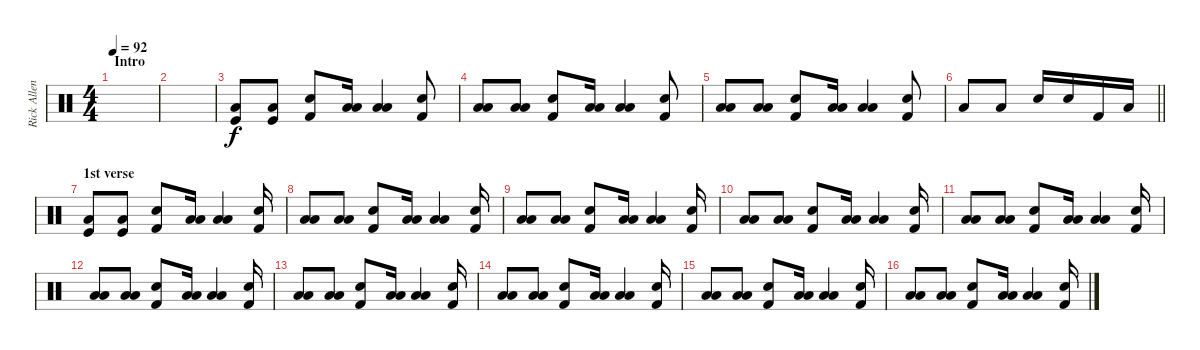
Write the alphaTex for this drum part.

\track ("Rick Allen" "Rick Allen") {instrument percussion}
\staff {score}
\articulation defaults
\ts (4 4)
\section ("" "Intro")
\tempo 92
\clef neutral
\ks c
|
|
("Low Floor Tom (hit)" "Kick (hit)").8 ("Low Floor Tom (hit)" "Kick (hit)").8 ("Snare (hit) 2" "Kick (hit) 2").8 ("Low Floor Tom (hit)" "Low Floor Tom (hit)").16 ("Low Floor Tom (hit)" "Low Floor Tom (hit)").4 ("Kick (hit) 2" "Snare (hit) 2").8 |
("Low Floor Tom (hit)" "Low Floor Tom (hit)").8 ("Low Floor Tom (hit)" "Low Floor Tom (hit)").8 ("Snare (hit) 2" "Kick (hit) 2").8 ("Low Floor Tom (hit)" "Low Floor Tom (hit)").16 ("Low Floor Tom (hit)" "Low Floor Tom (hit)").4 ("Kick (hit) 2" "Snare (hit) 2").8 |
("Low Floor Tom (hit)" "Low Floor Tom (hit)").8 ("Low Floor Tom (hit)" "Low Floor Tom (hit)").8 ("Snare (hit) 2" "Kick (hit) 2").8 ("Low Floor Tom (hit)" "Low Floor Tom (hit)").16 ("Low Floor Tom (hit)" "Low Floor Tom (hit)").4 ("Kick (hit) 2" "Snare (hit) 2").8 |
\barLineRight lightlight "Low Floor Tom (hit)".8 "Low Floor Tom (hit)".8 "Electric Snare (hit)".16 "Snare (hit) 2".16 "Kick (hit) 2".16 "Low Floor Tom (hit)".16
|
\section ("" "1st verse")
("Low Floor Tom (hit)" "Kick (hit)").8 ("Low Floor Tom (hit)" "Kick (hit)").8 ("Snare (hit) 2" "Kick (hit) 2").8 ("Low Floor Tom (hit)" "Low Floor Tom (hit)").16 ("Low Floor Tom (hit)" "Low Floor Tom (hit)").4 ("Kick (hit) 2" "Snare (hit) 2").16 |
("Low Floor Tom (hit)" "Low Floor Tom (hit)").8 ("Low Floor Tom (hit)" "Low Floor Tom (hit)").8 ("Snare (hit) 2" "Kick (hit) 2").8 ("Low Floor Tom (hit)" "Low Floor Tom (hit)").16 ("Low Floor Tom (hit)" "Low Floor Tom (hit)").4 ("Kick (hit) 2" "Snare (hit) 2").16 |
("Low Floor Tom (hit)" "Low Floor Tom (hit)").8 ("Low Floor Tom (hit)" "Low Floor Tom (hit)").8 ("Snare (hit) 2" "Kick (hit) 2").8 ("Low Floor Tom (hit)" "Low Floor Tom (hit)").16 ("Low Floor Tom (hit)" "Low Floor Tom (hit)").4 ("Kick (hit) 2" "Snare (hit) 2").16 |
("Low Floor Tom (hit)" "Low Floor Tom (hit)").8 ("Low Floor Tom (hit)" "Low Floor Tom (hit)").8 ("Snare (hit) 2" "Kick (hit) 2").8 ("Low Floor Tom (hit)" "Low Floor Tom (hit)").16 ("Low Floor Tom (hit)" "Low Floor Tom (hit)").4 ("Kick (hit) 2" "Snare (hit) 2").16 |
("Low Floor Tom (hit)" "Low Floor Tom (hit)").8 ("Low Floor Tom (hit)" "Low Floor Tom (hit)").8 ("Snare (hit) 2" "Kick (hit) 2").8 ("Low Floor Tom (hit)" "Low Floor Tom (hit)").16 ("Low Floor Tom (hit)" "Low Floor Tom (hit)").4 ("Kick (hit) 2" "Snare (hit) 2").16 |
("Low Floor Tom (hit)" "Low Floor Tom (hit)").8 ("Low Floor Tom (hit)" "Low Floor Tom (hit)").8 ("Snare (hit) 2" "Kick (hit) 2").8 ("Low Floor Tom (hit)" "Low Floor Tom (hit)").16 ("Low Floor Tom (hit)" "Low Floor Tom (hit)").4 ("Kick (hit) 2" "Snare (hit) 2").16 |
("Low Floor Tom (hit)" "Low Floor Tom (hit)").8 ("Low Floor Tom (hit)" "Low Floor Tom (hit)").8 ("Snare (hit) 2" "Kick (hit) 2").8 ("Low Floor Tom (hit)" "Low Floor Tom (hit)").16 ("Low Floor Tom (hit)" "Low Floor Tom (hit)").4 ("Kick (hit) 2" "Snare (hit) 2").16 |
("Low Floor Tom (hit)" "Low Floor Tom (hit)").8 ("Low Floor Tom (hit)" "Low Floor Tom (hit)").8 ("Snare (hit) 2" "Kick (hit) 2").8 ("Low Floor Tom (hit)" "Low Floor Tom (hit)").16 ("Low Floor Tom (hit)" "Low Floor Tom (hit)").4 ("Kick (hit) 2" "Snare (hit) 2").16 |
("Low Floor Tom (hit)" "Low Floor Tom (hit)").8 ("Low Floor Tom (hit)" "Low Floor Tom (hit)").8 ("Snare (hit) 2" "Kick (hit) 2").8 ("Low Floor Tom (hit)" "Low Floor Tom (hit)").16 ("Low Floor Tom (hit)" "Low Floor Tom (hit)").4 ("Kick (hit) 2" "Snare (hit) 2").16 |
("Low Floor Tom (hit)" "Low Floor Tom (hit)").8 ("Low Floor Tom (hit)" "Low Floor Tom (hit)").8 ("Snare (hit) 2" "Kick (hit) 2").8 ("Low Floor Tom (hit)" "Low Floor Tom (hit)").16 ("Low Floor Tom (hit)" "Low Floor Tom (hit)").4 ("Kick (hit) 2" "Snare (hit) 2").16
